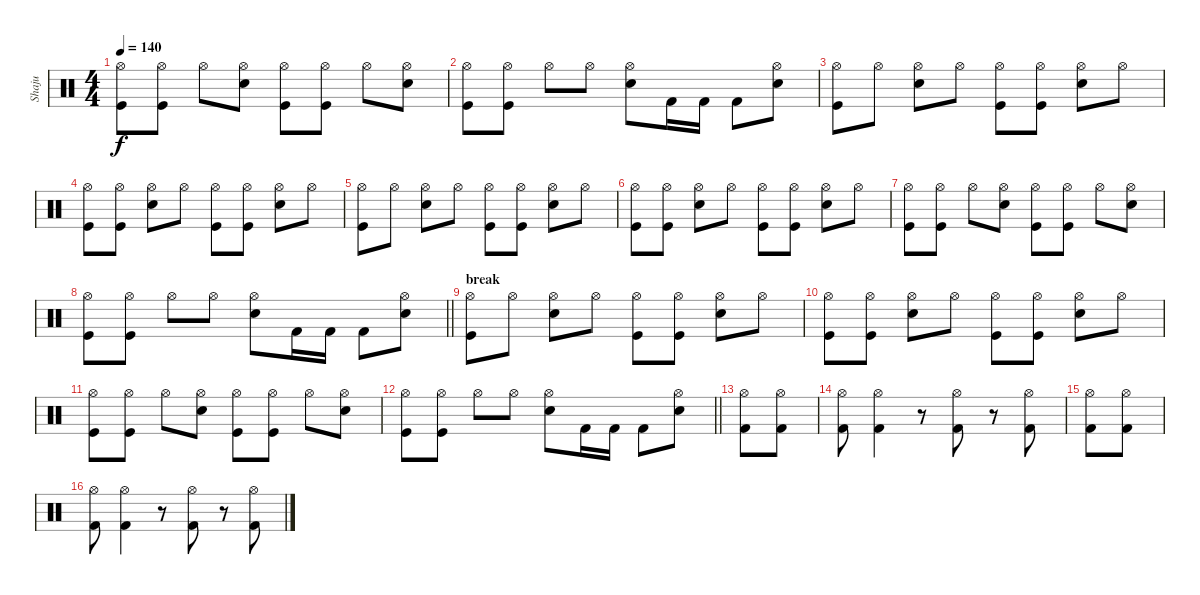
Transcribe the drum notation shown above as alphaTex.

\track ("Shaju" "Shaju") {instrument percussion}
\staff {score}
\articulation defaults
\ts (4 4)
\tempo 140
\clef neutral
\ks c
("Hi-Hat (open)" "Kick (hit)").8{dy f} ("Hi-Hat (open)" "Kick (hit)").8 "Hi-Hat (open)".8 ("Hi-Hat (open)" "Electric Snare (hit)").8 ("Hi-Hat (open)" "Kick (hit)").8 ("Hi-Hat (open)" "Kick (hit)").8 "Hi-Hat (open)".8 ("Hi-Hat (open)" "Electric Snare (hit)").8 |
("Hi-Hat (open)" "Kick (hit)").8 ("Hi-Hat (open)" "Kick (hit)").8 "Hi-Hat (open)".8 "Hi-Hat (open)".8 ("Hi-Hat (open)" "Electric Snare (hit)").8 "Kick (hit) 2".16 "Kick (hit) 2".16 "Kick (hit) 2".8 ("Hi-Hat (open)" "Electric Snare (hit)").8 |
("Hi-Hat (open)" "Kick (hit)").8 "Hi-Hat (open)".8 ("Hi-Hat (open)" "Electric Snare (hit)").8 "Hi-Hat (open)".8 ("Hi-Hat (open)" "Kick (hit)").8 ("Hi-Hat (open)" "Kick (hit)").8 ("Hi-Hat (open)" "Electric Snare (hit)").8 "Hi-Hat (open)".8 |
("Hi-Hat (open)" "Kick (hit)").8 ("Hi-Hat (open)" "Kick (hit)").8 ("Hi-Hat (open)" "Electric Snare (hit)").8 "Hi-Hat (open)".8 ("Hi-Hat (open)" "Kick (hit)").8 ("Hi-Hat (open)" "Kick (hit)").8 ("Hi-Hat (open)" "Electric Snare (hit)").8 "Hi-Hat (open)".8 |
("Hi-Hat (open)" "Kick (hit)").8 "Hi-Hat (open)".8 ("Hi-Hat (open)" "Electric Snare (hit)").8 "Hi-Hat (open)".8 ("Hi-Hat (open)" "Kick (hit)").8 ("Hi-Hat (open)" "Kick (hit)").8 ("Hi-Hat (open)" "Electric Snare (hit)").8 "Hi-Hat (open)".8 |
("Hi-Hat (open)" "Kick (hit)").8 ("Hi-Hat (open)" "Kick (hit)").8 ("Hi-Hat (open)" "Electric Snare (hit)").8 "Hi-Hat (open)".8 ("Hi-Hat (open)" "Kick (hit)").8 ("Hi-Hat (open)" "Kick (hit)").8 ("Hi-Hat (open)" "Electric Snare (hit)").8 "Hi-Hat (open)".8 |
("Hi-Hat (open)" "Kick (hit)").8 ("Hi-Hat (open)" "Kick (hit)").8 "Hi-Hat (open)".8 ("Hi-Hat (open)" "Electric Snare (hit)").8 ("Hi-Hat (open)" "Kick (hit)").8 ("Hi-Hat (open)" "Kick (hit)").8 "Hi-Hat (open)".8 ("Hi-Hat (open)" "Electric Snare (hit)").8 |
\barLineRight lightlight
("Hi-Hat (open)" "Kick (hit)").8 ("Hi-Hat (open)" "Kick (hit)").8 "Hi-Hat (open)".8 "Hi-Hat (open)".8 ("Hi-Hat (open)" "Electric Snare (hit)").8 "Kick (hit) 2".16 "Kick (hit) 2".16 "Kick (hit) 2".8 ("Hi-Hat (open)" "Electric Snare (hit)").8 |
\section ("" "break")
("Hi-Hat (open)" "Kick (hit)").8 "Hi-Hat (open)".8 ("Hi-Hat (open)" "Electric Snare (hit)").8 "Hi-Hat (open)".8 ("Hi-Hat (open)" "Kick (hit)").8 ("Hi-Hat (open)" "Kick (hit)").8 ("Hi-Hat (open)" "Electric Snare (hit)").8 "Hi-Hat (open)".8 |
("Hi-Hat (open)" "Kick (hit)").8 ("Hi-Hat (open)" "Kick (hit)").8 ("Hi-Hat (open)" "Electric Snare (hit)").8 "Hi-Hat (open)".8 ("Hi-Hat (open)" "Kick (hit)").8 ("Hi-Hat (open)" "Kick (hit)").8 ("Hi-Hat (open)" "Electric Snare (hit)").8 "Hi-Hat (open)".8 |
("Hi-Hat (open)" "Kick (hit)").8 ("Hi-Hat (open)" "Kick (hit)").8 "Hi-Hat (open)".8 ("Hi-Hat (open)" "Electric Snare (hit)").8 ("Hi-Hat (open)" "Kick (hit)").8 ("Hi-Hat (open)" "Kick (hit)").8 "Hi-Hat (open)".8 ("Hi-Hat (open)" "Electric Snare (hit)").8 |
\barLineRight lightlight
("Hi-Hat (open)" "Kick (hit)").8 ("Hi-Hat (open)" "Kick (hit)").8 "Hi-Hat (open)".8 "Hi-Hat (open)".8 ("Hi-Hat (open)" "Electric Snare (hit)").8 "Kick (hit) 2".16 "Kick (hit) 2".16 "Kick (hit) 2".8 ("Hi-Hat (open)" "Electric Snare (hit)").8 |
("Hi-Hat (open)" "Kick (hit) 2").8 ("Hi-Hat (open)" "Kick (hit) 2").8 |
("Hi-Hat (open)" "Kick (hit) 2").8 ("Hi-Hat (open)" "Kick (hit) 2").4 r.8 ("Hi-Hat (open)" "Kick (hit) 2").8 r.8 ("Hi-Hat (open)" "Kick (hit) 2").8 |
("Hi-Hat (open)" "Kick (hit) 2").8 ("Hi-Hat (open)" "Kick (hit) 2").8 |
("Hi-Hat (open)" "Kick (hit) 2").8 ("Hi-Hat (open)" "Kick (hit) 2").4 r.8 ("Hi-Hat (open)" "Kick (hit) 2").8 r.8 ("Hi-Hat (open)" "Kick (hit) 2").8
